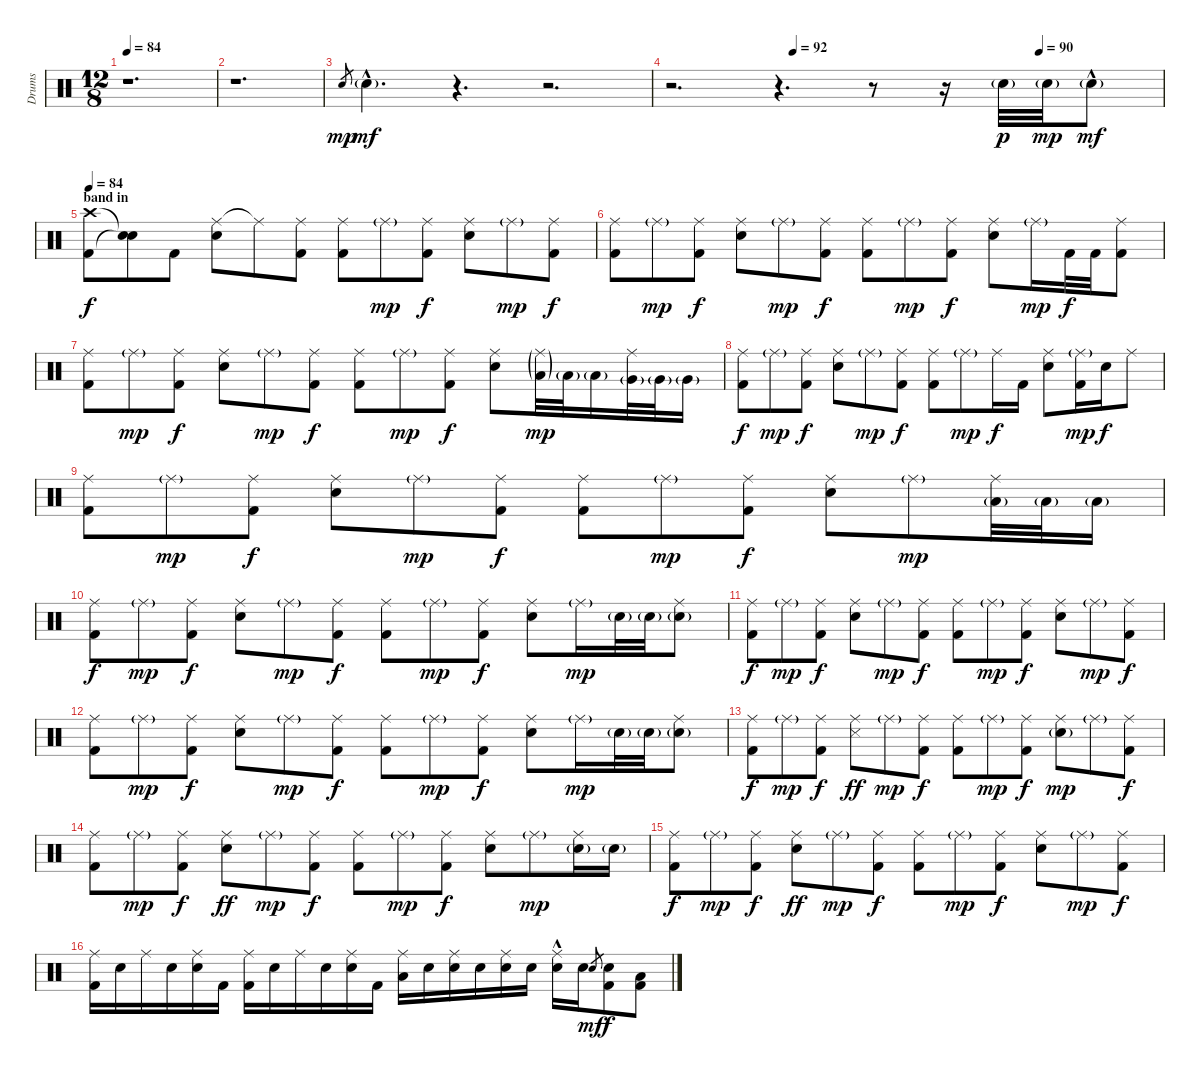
\track ("Drums" "Drums") {instrument percussion}
\staff {score}
\articulation defaults
\ts (12 8)
\tempo 84
\tempo 90
\tempo 84
\clef neutral
\ks c
r.1{d dy mp} |
r.1{d} |
"Electric Snare (hit)".8{gr} "Electric Snare (hit)"{g hac}.4{d dy mf} r.4{d} r.2{d} |
\tempo (92 0.25)
\tempo (90 0.75)
r.2{d} r.4{d} r.8 r.16 "Electric Snare (hit)"{g}.32{dy p} "Electric Snare (hit)"{g}.32{dy mp} "Electric Snare (hit)"{g hac}.8{dy mf} |
\section ("" "band in")
\tempo 84
("Crash high (hit)" "Kick (hit) 2").8{dy f volume 11} ("Snare (hit)"{t} "Snare (hit)"{t}).8 "Kick (hit) 2".8 ("Ride (middle)" "Electric Snare (hit)").8 "Ride (middle)"{t}.8 ("Ride (middle)" "Kick (hit) 2").8 ("Ride (middle)" "Kick (hit) 2").8 "Ride (middle)"{g}.8{dy mp} ("Ride (middle)" "Kick (hit) 2").8{dy f} ("Ride (middle)" "Electric Snare (hit)").8 "Ride (middle)"{g}.8{dy mp} ("Ride (middle)" "Kick (hit) 2").8{dy f} |
("Ride (middle)" "Kick (hit) 2").8 "Ride (middle)"{g}.8{dy mp} ("Ride (middle)" "Kick (hit) 2").8{dy f} ("Ride (middle)" "Electric Snare (hit)").8 "Ride (middle)"{g}.8{dy mp} ("Ride (middle)" "Kick (hit) 2").8{dy f} ("Ride (middle)" "Kick (hit) 2").8 "Ride (middle)"{g}.8{dy mp} ("Ride (middle)" "Kick (hit) 2").8{dy f} ("Ride (middle)" "Electric Snare (hit)").8 "Ride (middle)"{g}.16{dy mp} "Kick (hit) 2".32{dy f} "Kick (hit) 2".32 ("Ride (middle)" "Kick (hit) 2").8 |
("Ride (middle)" "Kick (hit) 2").8 "Ride (middle)"{g}.8{dy mp} ("Ride (middle)" "Kick (hit) 2").8{dy f} ("Ride (middle)" "Electric Snare (hit)").8 "Ride (middle)"{g}.8{dy mp} ("Ride (middle)" "Kick (hit) 2").8{dy f} ("Ride (middle)" "Kick (hit) 2").8 "Ride (middle)"{g}.8{dy mp} ("Ride (middle)" "Kick (hit) 2").8{dy f} ("Ride (middle)" "Electric Snare (hit)").8 ("Ride (middle)"{g} "Low Tom (hit)"{g}).32{dy mp} "Low Tom (hit)"{g}.32 "Low Tom (hit)"{g}.16 ("Ride (middle)" "Very Low Tom (hit)"{g}).32 "Very Low Tom (hit)"{g}.32 "Very Low Tom (hit)"{g}.16 |
("Ride (middle)" "Kick (hit) 2").8{dy f} "Ride (middle)"{g}.8{dy mp} ("Ride (middle)" "Kick (hit) 2").8{dy f} ("Ride (middle)" "Electric Snare (hit)").8 "Ride (middle)"{g}.8{dy mp} ("Ride (middle)" "Kick (hit) 2").8{dy f} ("Ride (middle)" "Kick (hit) 2").8 "Ride (middle)"{g}.8{dy mp} "Ride (middle)".16{dy f} "Kick (hit) 2".16 ("Ride (middle)" "Electric Snare (hit)").8 ("Ride (middle)"{g} "Kick (hit) 2").16{dy mp} "Electric Snare (hit)".16{dy f} "Ride (middle)".8 |
("Ride (middle)" "Kick (hit) 2").8{volume 12} "Ride (middle)"{g}.8{dy mp} ("Ride (middle)" "Kick (hit) 2").8{dy f} ("Ride (middle)" "Electric Snare (hit)").8 "Ride (middle)"{g}.8{dy mp} ("Ride (middle)" "Kick (hit) 2").8{dy f} ("Ride (middle)" "Kick (hit) 2").8 "Ride (middle)"{g}.8{dy mp} ("Ride (middle)" "Kick (hit) 2").8{dy f} ("Ride (middle)" "Electric Snare (hit)").8 "Ride (middle)"{g}.8{dy mp} ("Ride (middle)" "Low Tom (hit)"{g}).32 "Low Tom (hit)"{g}.32 "Low Tom (hit)"{g}.16 |
("Ride (middle)" "Kick (hit) 2").8{dy f} "Ride (middle)"{g}.8{dy mp} ("Ride (middle)" "Kick (hit) 2").8{dy f} ("Ride (middle)" "Electric Snare (hit)").8 "Ride (middle)"{g}.8{dy mp} ("Ride (middle)" "Kick (hit) 2").8{dy f} ("Ride (middle)" "Kick (hit) 2").8 "Ride (middle)"{g}.8{dy mp} ("Ride (middle)" "Kick (hit) 2").8{dy f} ("Ride (middle)" "Electric Snare (hit)").8 "Ride (middle)"{g}.16{dy mp} "Electric Snare (hit)"{g}.32 "Electric Snare (hit)"{g}.32 ("Ride (middle)" "Electric Snare (hit)"{g}).8 |
("Ride (middle)" "Kick (hit) 2").8{dy f} "Ride (middle)"{g}.8{dy mp} ("Ride (middle)" "Kick (hit) 2").8{dy f} ("Ride (middle)" "Electric Snare (hit)").8 "Ride (middle)"{g}.8{dy mp} ("Ride (middle)" "Kick (hit) 2").8{dy f} ("Ride (middle)" "Kick (hit) 2").8 "Ride (middle)"{g}.8{dy mp} ("Ride (middle)" "Kick (hit) 2").8{dy f} ("Ride (middle)" "Electric Snare (hit)").8 "Ride (middle)"{g}.8{dy mp} ("Ride (middle)" "Kick (hit) 2").8{dy f} |
("Ride (middle)" "Kick (hit) 2").8 "Ride (middle)"{g}.8{dy mp} ("Ride (middle)" "Kick (hit) 2").8{dy f} ("Ride (middle)" "Electric Snare (hit)").8 "Ride (middle)"{g}.8{dy mp} ("Ride (middle)" "Kick (hit) 2").8{dy f} ("Ride (middle)" "Kick (hit) 2").8 "Ride (middle)"{g}.8{dy mp} ("Ride (middle)" "Kick (hit) 2").8{dy f} ("Ride (middle)" "Electric Snare (hit)").8 "Ride (middle)"{g}.16{dy mp} "Electric Snare (hit)"{g}.32 "Electric Snare (hit)"{g}.32 ("Ride (middle)" "Electric Snare (hit)"{g}).8 |
("Ride (middle)" "Kick (hit) 2").8{dy f volume 13} "Ride (middle)"{g}.8{dy mp} ("Ride (middle)" "Kick (hit) 2").8{dy f} ("Ride (middle)" "Metronome (hit)").8{dy ff} "Ride (middle)"{g}.8{dy mp} ("Ride (middle)" "Kick (hit) 2").8{dy f} ("Ride (middle)" "Kick (hit) 2").8 "Ride (middle)"{g}.8{dy mp} ("Ride (middle)" "Kick (hit) 2").8{dy f} ("Ride (middle)" "Electric Snare (hit)"{g}).8{dy mp} "Ride (middle)"{g}.8 ("Ride (middle)" "Kick (hit) 2").8{dy f} |
("Ride (middle)" "Kick (hit) 2").8 "Ride (middle)"{g}.8{dy mp} ("Ride (middle)" "Kick (hit) 2").8{dy f} ("Ride (middle)" "Electric Snare (hit)").8{dy ff} "Ride (middle)"{g}.8{dy mp} ("Ride (middle)" "Kick (hit) 2").8{dy f} ("Ride (middle)" "Kick (hit) 2").8 "Ride (middle)"{g}.8{dy mp} ("Ride (middle)" "Kick (hit) 2").8{dy f} ("Ride (middle)" "Electric Snare (hit)").8 "Ride (middle)"{g}.8{dy mp} ("Ride (middle)" "Electric Snare (hit)"{g}).16 "Electric Snare (hit)"{g}.16 |
("Ride (middle)" "Kick (hit) 2").8{dy f} "Ride (middle)"{g}.8{dy mp} ("Ride (middle)" "Kick (hit) 2").8{dy f} ("Ride (middle)" "Electric Snare (hit)").8{dy ff} "Ride (middle)"{g}.8{dy mp} ("Ride (middle)" "Kick (hit) 2").8{dy f} ("Ride (middle)" "Kick (hit) 2").8 "Ride (middle)"{g}.8{dy mp} ("Ride (middle)" "Kick (hit) 2").8{dy f} ("Ride (middle)" "Electric Snare (hit)").8 "Ride (middle)"{g}.8{dy mp} ("Ride (middle)" "Kick (hit) 2").8{dy f} |
("Ride (middle)" "Kick (hit) 2").16 "Electric Snare (hit)".16 "Ride (middle)".16 "Electric Snare (hit)".16 ("Ride (middle)" "Electric Snare (hit)").16 "Kick (hit) 2".16 ("Ride (middle)" "Kick (hit) 2").16 "Electric Snare (hit)".16 "Ride (middle)".16 "Electric Snare (hit)".16 ("Ride (middle)" "Electric Snare (hit)").16 "Kick (hit) 2".16 ("Ride (middle)" "Low Tom (hit)").16 "Electric Snare (hit)".16 ("Ride (middle)" "Electric Snare (hit)").16 "Electric Snare (hit)".16 ("Ride (middle)" "Electric Snare (hit)").16 "Electric Snare (hit)".16 ("Ride (middle)"{hac} "Electric Snare (hit)").16 "Electric Snare (hit)".16 "Electric Snare (hit)".8{gr dy mf} ("Electric Snare (hit)" "Kick (hit) 2").8{dy f} ("Low Tom (hit)" "Kick (hit) 2").8
